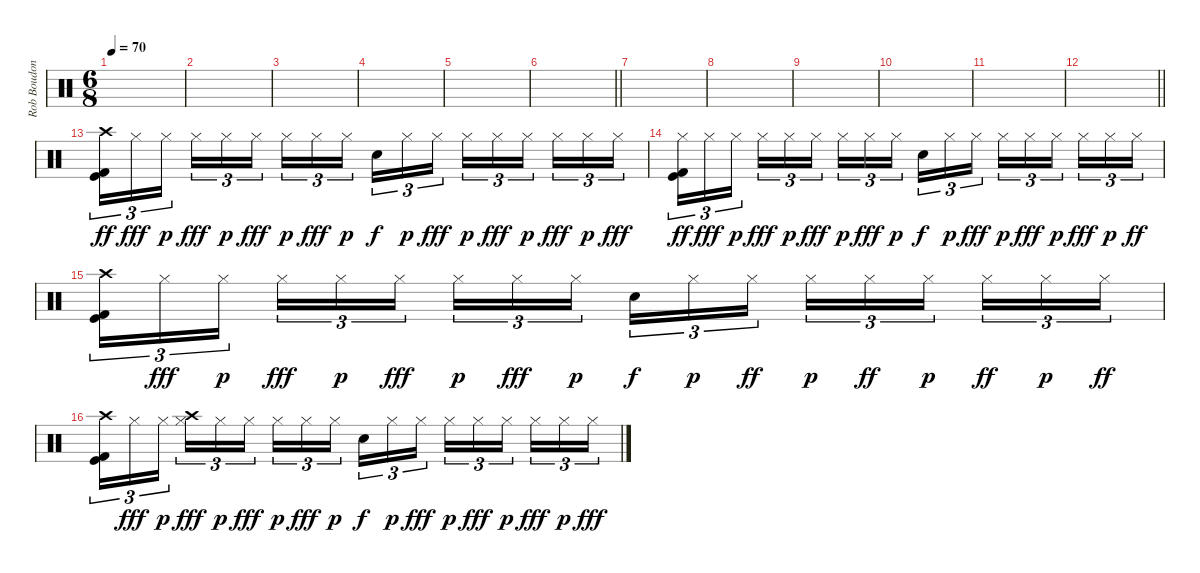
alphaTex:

\track ("Rob Boudon [Drums]" "Rob Boudon") {instrument percussion}
\staff {score}
\articulation defaults
\ts (6 8)
\tempo 70
\clef neutral
\ks c
|
|
|
|
|
\barLineRight lightlight
|
|
|
|
|
|
\barLineRight lightlight
|
("Crash high (hit)" "Kick (hit) 2" "Kick (hit)").16{tu (3 2) dy ff volume 16} "Hi-Hat (closed)".16{tu (3 2) dy fff} "Hi-Hat (closed)".16{tu (3 2) dy p beam splitsecondary} "Hi-Hat (closed)".16{tu (3 2) dy fff} "Hi-Hat (closed)".16{tu (3 2) dy p} "Hi-Hat (closed)".16{tu (3 2) dy fff beam splitsecondary} "Hi-Hat (closed)".16{tu (3 2) dy p} "Hi-Hat (closed)".16{tu (3 2) dy fff} "Hi-Hat (closed)".16{tu (3 2) dy p} "Electric Snare (hit)".16{tu (3 2) dy f} "Hi-Hat (closed)".16{tu (3 2) dy p} "Hi-Hat (closed)".16{tu (3 2) dy fff beam splitsecondary} "Hi-Hat (closed)".16{tu (3 2) dy p} "Hi-Hat (closed)".16{tu (3 2) dy fff} "Hi-Hat (closed)".16{tu (3 2) dy p beam splitsecondary} "Hi-Hat (closed)".16{tu (3 2) dy fff} "Hi-Hat (closed)".16{tu (3 2) dy p} "Hi-Hat (closed)".16{tu (3 2) dy fff} |
("Hi-Hat (closed)" "Kick (hit) 2" "Kick (hit)").16{tu (3 2) dy ff} "Hi-Hat (closed)".16{tu (3 2) dy fff} "Hi-Hat (closed)".16{tu (3 2) dy p beam splitsecondary} "Hi-Hat (closed)".16{tu (3 2) dy fff} "Hi-Hat (closed)".16{tu (3 2) dy p} "Hi-Hat (closed)".16{tu (3 2) dy fff beam splitsecondary} "Hi-Hat (closed)".16{tu (3 2) dy p} "Hi-Hat (closed)".16{tu (3 2) dy fff} "Hi-Hat (closed)".16{tu (3 2) dy p} "Electric Snare (hit)".16{tu (3 2) dy f} "Hi-Hat (closed)".16{tu (3 2) dy p} "Hi-Hat (closed)".16{tu (3 2) dy fff beam splitsecondary} "Hi-Hat (closed)".16{tu (3 2) dy p} "Hi-Hat (closed)".16{tu (3 2) dy fff} "Hi-Hat (closed)".16{tu (3 2) dy p beam splitsecondary} "Hi-Hat (closed)".16{tu (3 2) dy fff} "Hi-Hat (closed)".16{tu (3 2) dy p} "Hi-Hat (closed)".16{tu (3 2) dy ff} |
("Crash high (hit)" "Kick (hit) 2" "Kick (hit)").16{tu (3 2)} "Hi-Hat (closed)".16{tu (3 2) dy fff} "Hi-Hat (closed)".16{tu (3 2) dy p beam splitsecondary} "Hi-Hat (closed)".16{tu (3 2) dy fff} "Hi-Hat (closed)".16{tu (3 2) dy p} "Hi-Hat (closed)".16{tu (3 2) dy fff beam splitsecondary} "Hi-Hat (closed)".16{tu (3 2) dy p} "Hi-Hat (closed)".16{tu (3 2) dy fff} "Hi-Hat (closed)".16{tu (3 2) dy p} "Electric Snare (hit)".16{tu (3 2) dy f} "Hi-Hat (closed)".16{tu (3 2) dy p} "Hi-Hat (closed)".16{tu (3 2) dy ff beam splitsecondary} "Hi-Hat (closed)".16{tu (3 2) dy p} "Hi-Hat (closed)".16{tu (3 2) dy ff} "Hi-Hat (closed)".16{tu (3 2) dy p beam splitsecondary} "Hi-Hat (closed)".16{tu (3 2) dy ff} "Hi-Hat (closed)".16{tu (3 2) dy p} "Hi-Hat (closed)".16{tu (3 2) dy ff} |
("Crash high (hit)" "Kick (hit) 2" "Kick (hit)").16{tu (3 2)} "Hi-Hat (closed)".16{tu (3 2) dy fff} "Hi-Hat (closed)".16{tu (3 2) dy p beam splitsecondary} ("Crash high (hit)" "Hi-Hat (closed)").16{tu (3 2) dy fff} "Hi-Hat (closed)".16{tu (3 2) dy p} "Hi-Hat (closed)".16{tu (3 2) dy fff beam splitsecondary} "Hi-Hat (closed)".16{tu (3 2) dy p} "Hi-Hat (closed)".16{tu (3 2) dy fff} "Hi-Hat (closed)".16{tu (3 2) dy p} "Electric Snare (hit)".16{tu (3 2) dy f} "Hi-Hat (closed)".16{tu (3 2) dy p} "Hi-Hat (closed)".16{tu (3 2) dy fff beam splitsecondary} "Hi-Hat (closed)".16{tu (3 2) dy p} "Hi-Hat (closed)".16{tu (3 2) dy fff} "Hi-Hat (closed)".16{tu (3 2) dy p beam splitsecondary} "Hi-Hat (closed)".16{tu (3 2) dy fff} "Hi-Hat (closed)".16{tu (3 2) dy p} "Hi-Hat (closed)".16{tu (3 2) dy fff}
